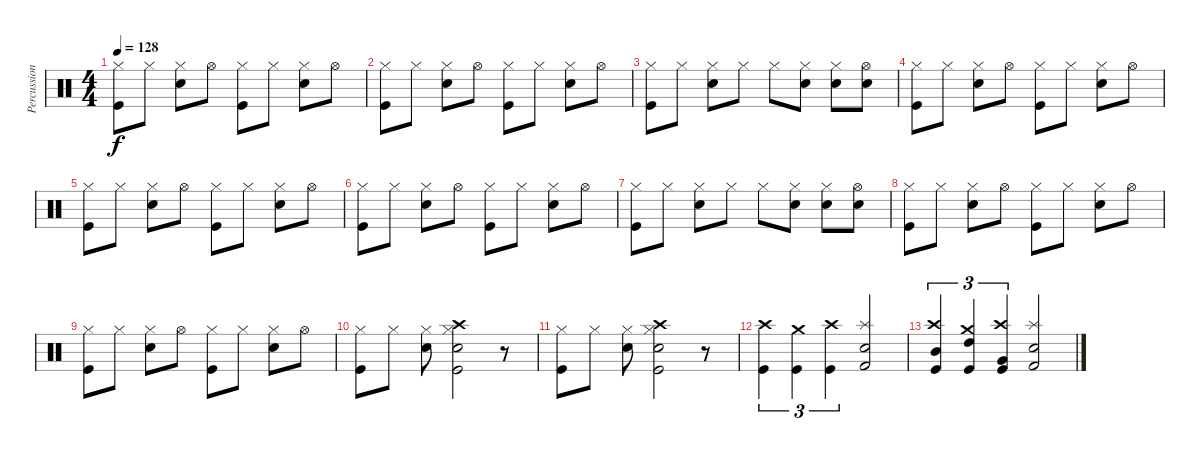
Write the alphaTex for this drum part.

\track ("Percussion" "Percussion") {instrument percussion}
\staff {score}
\articulation defaults
\ts (4 4)
\tempo 128
\clef neutral
\ks c
("Hi-Hat (closed)" "Kick (hit)").8{dy f} "Hi-Hat (closed)".8 ("Hi-Hat (closed)" "Snare (hit) 2").8 "Hi-Hat (open)".8 ("Hi-Hat (closed)" "Kick (hit)").8 "Hi-Hat (closed)".8 ("Hi-Hat (closed)" "Snare (hit) 2").8 "Hi-Hat (open)".8 |
("Hi-Hat (closed)" "Kick (hit)").8 "Hi-Hat (closed)".8 ("Hi-Hat (closed)" "Snare (hit) 2").8 "Hi-Hat (open)".8 ("Hi-Hat (closed)" "Kick (hit)").8 "Hi-Hat (closed)".8 ("Hi-Hat (closed)" "Snare (hit) 2").8 "Hi-Hat (open)".8 |
("Hi-Hat (closed)" "Kick (hit)").8 "Hi-Hat (closed)".8 ("Hi-Hat (closed)" "Snare (hit) 2").8 "Hi-Hat (closed)".8 "Hi-Hat (closed)".8 ("Hi-Hat (closed)" "Snare (hit) 2").8 ("Hi-Hat (closed)" "Snare (hit) 2").8 ("Hi-Hat (open)" "Snare (hit) 2").8 |
("Hi-Hat (closed)" "Kick (hit)").8 "Hi-Hat (closed)".8 ("Hi-Hat (closed)" "Snare (hit) 2").8 "Hi-Hat (open)".8 ("Hi-Hat (closed)" "Kick (hit)").8 "Hi-Hat (closed)".8 ("Hi-Hat (closed)" "Snare (hit) 2").8 "Hi-Hat (open)".8 |
("Hi-Hat (closed)" "Kick (hit)").8 "Hi-Hat (closed)".8 ("Hi-Hat (closed)" "Snare (hit) 2").8 "Hi-Hat (open)".8 ("Hi-Hat (closed)" "Kick (hit)").8 "Hi-Hat (closed)".8 ("Hi-Hat (closed)" "Snare (hit) 2").8 "Hi-Hat (open)".8 |
("Hi-Hat (closed)" "Kick (hit)").8 "Hi-Hat (closed)".8 ("Hi-Hat (closed)" "Snare (hit) 2").8 "Hi-Hat (open)".8 ("Hi-Hat (closed)" "Kick (hit)").8 "Hi-Hat (closed)".8 ("Hi-Hat (closed)" "Snare (hit) 2").8 "Hi-Hat (open)".8 |
("Hi-Hat (closed)" "Kick (hit)").8 "Hi-Hat (closed)".8 ("Hi-Hat (closed)" "Snare (hit) 2").8 "Hi-Hat (closed)".8 "Hi-Hat (closed)".8 ("Hi-Hat (closed)" "Snare (hit) 2").8 ("Hi-Hat (closed)" "Snare (hit) 2").8 ("Hi-Hat (open)" "Snare (hit) 2").8 |
("Hi-Hat (closed)" "Kick (hit)").8 "Hi-Hat (closed)".8 ("Hi-Hat (closed)" "Snare (hit) 2").8 "Hi-Hat (open)".8 ("Hi-Hat (closed)" "Kick (hit)").8 "Hi-Hat (closed)".8 ("Hi-Hat (closed)" "Snare (hit) 2").8 "Hi-Hat (open)".8 |
("Hi-Hat (closed)" "Kick (hit)").8 "Hi-Hat (closed)".8 ("Hi-Hat (closed)" "Snare (hit) 2").8 "Hi-Hat (open)".8 ("Hi-Hat (closed)" "Kick (hit)").8 "Hi-Hat (closed)".8 ("Hi-Hat (closed)" "Snare (hit) 2").8 "Hi-Hat (open)".8 |
("Hi-Hat (closed)" "Kick (hit)").8 "Hi-Hat (closed)".8 ("Hi-Hat (closed)" "Snare (hit) 2").8 ("Hi-Hat (closed)" "Snare (hit) 2" "Kick (hit)" "Crash high (hit)").2 r.8 |
("Hi-Hat (closed)" "Kick (hit)").8 "Hi-Hat (closed)".8 ("Hi-Hat (closed)" "Snare (hit) 2").8 ("Hi-Hat (closed)" "Snare (hit) 2" "Kick (hit)" "Crash high (hit)").2 r.8 |
("Crash high (hit)" "Kick (hit)").4{tu (3 2)} ("Crash medium (hit)" "Kick (hit)").4{tu (3 2)} ("Crash high (hit)" "Kick (hit)").4{tu (3 2)} ("Splash (hit)" "Snare (hit) 2" "Kick (hit) 2").2 |
("Crash high (hit)" "Kick (hit)" "Mid Tom (hit)").4{tu (3 2)} ("Crash medium (hit)" "Kick (hit)" "High Tom (hit)").4{tu (3 2)} ("Crash high (hit)" "Kick (hit)" "Very Low Tom (hit)").4{tu (3 2)} ("Splash (hit)" "Snare (hit) 2" "Kick (hit) 2").2
